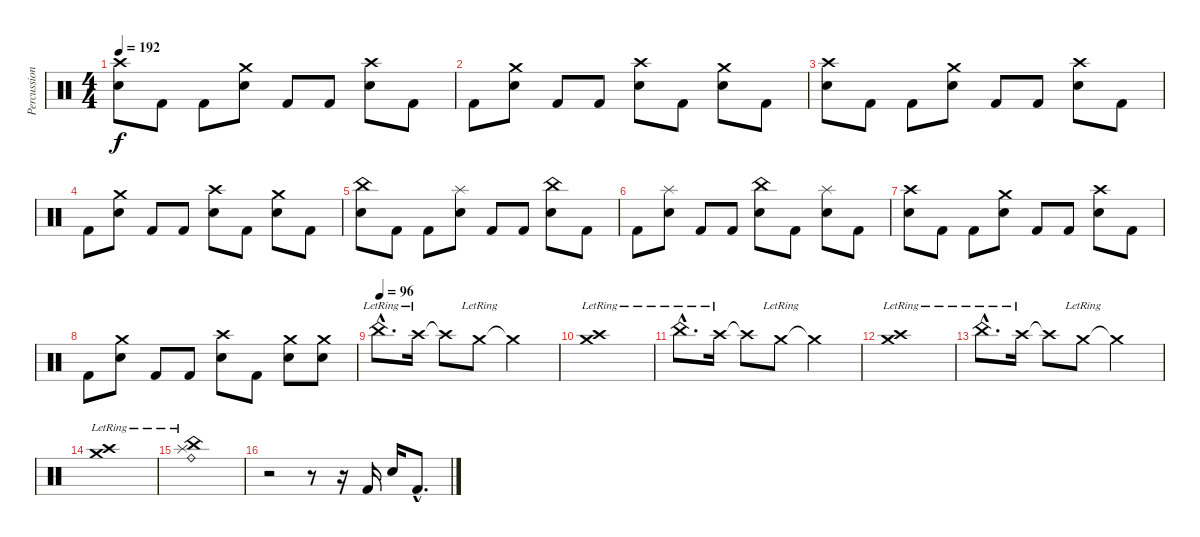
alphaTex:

\track ("Percussion" "Percussion") {instrument percussion}
\staff {score}
\articulation defaults
\ts (4 4)
\tempo 192
\clef neutral
\ks c
("Crash high (hit)" "Electric Snare (hit)").8{dy f} "Kick (hit) 2".8 "Kick (hit) 2".8 ("Crash medium (hit)" "Electric Snare (hit)").8 "Kick (hit) 2".8 "Kick (hit) 2".8 ("Crash high (hit)" "Electric Snare (hit)").8 "Kick (hit) 2".8 |
"Kick (hit) 2".8 ("Crash medium (hit)" "Electric Snare (hit)").8 "Kick (hit) 2".8 "Kick (hit) 2".8 ("Crash high (hit)" "Electric Snare (hit)").8 "Kick (hit) 2".8 ("Crash medium (hit)" "Electric Snare (hit)").8 "Kick (hit) 2".8 |
("Crash high (hit)" "Electric Snare (hit)").8 "Kick (hit) 2".8 "Kick (hit) 2".8 ("Crash medium (hit)" "Electric Snare (hit)").8 "Kick (hit) 2".8 "Kick (hit) 2".8 ("Crash high (hit)" "Electric Snare (hit)").8 "Kick (hit) 2".8 |
"Kick (hit) 2".8 ("Crash medium (hit)" "Electric Snare (hit)").8 "Kick (hit) 2".8 "Kick (hit) 2".8 ("Crash high (hit)" "Electric Snare (hit)").8 "Kick (hit) 2".8 ("Crash medium (hit)" "Electric Snare (hit)").8 "Kick (hit) 2".8 |
("China (hit)" "Electric Snare (hit)").8 "Kick (hit) 2".8 "Kick (hit) 2".8 ("Splash (hit)" "Electric Snare (hit)").8 "Kick (hit) 2".8 "Kick (hit) 2".8 ("China (hit)" "Electric Snare (hit)").8 "Kick (hit) 2".8 |
"Kick (hit) 2".8 ("Splash (hit)" "Electric Snare (hit)").8 "Kick (hit) 2".8 "Kick (hit) 2".8 ("China (hit)" "Electric Snare (hit)").8 "Kick (hit) 2".8 ("Splash (hit)" "Electric Snare (hit)").8 "Kick (hit) 2".8 |
("Crash high (hit)" "Electric Snare (hit)").8 "Kick (hit) 2".8 "Kick (hit) 2".8 ("Crash medium (hit)" "Electric Snare (hit)").8 "Kick (hit) 2".8 "Kick (hit) 2".8 ("Crash high (hit)" "Electric Snare (hit)").8 "Kick (hit) 2".8 |
"Kick (hit) 2".8 ("Crash medium (hit)" "Electric Snare (hit)").8 "Kick (hit) 2".8 "Kick (hit) 2".8 ("Crash high (hit)" "Electric Snare (hit)").8 "Kick (hit) 2".8 ("Crash medium (hit)" "Electric Snare (hit)").8 ("Crash medium (hit)" "Electric Snare (hit)").8 |
\tempo (96)
"China (hit)"{hac lr}.8{d} "Crash high (hit)"{lr}.16 "Crash high (hit)"{t}.8 "Crash medium (hit)"{lr}.8 "Crash medium (hit)"{t}.2 |
("Crash medium (hit)"{lr} "Crash high (hit)"{lr}).1 |
"China (hit)"{hac lr}.8{d} "Crash high (hit)"{lr}.16 "Crash high (hit)"{t}.8 "Crash medium (hit)"{lr}.8 "Crash medium (hit)"{t}.2 |
("Crash medium (hit)"{lr} "Crash high (hit)"{lr}).1 |
"China (hit)"{hac lr}.8{d} "Crash high (hit)"{lr}.16 "Crash high (hit)"{t}.8 "Crash medium (hit)"{lr}.8 "Crash medium (hit)"{t}.2 |
("Crash medium (hit)"{lr} "Crash high (hit)"{lr}).1 |
("Splash (hit)"{lr} "Ride (bell)"{lr} "China (hit)"{lr}).1 |
r.2 r.8 r.16 "Kick (hit) 2".16 "Electric Snare (hit)".16 "Kick (hit) 2"{hac}.8{d}
